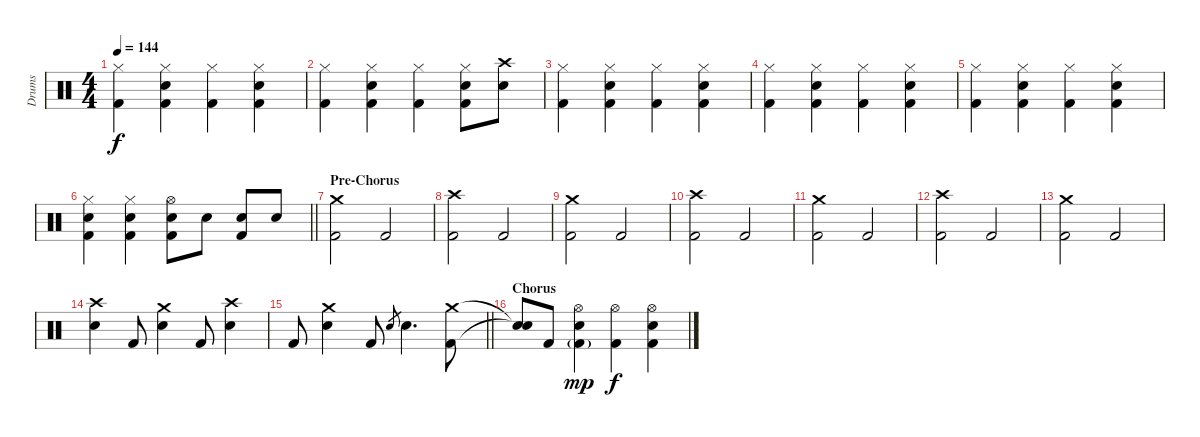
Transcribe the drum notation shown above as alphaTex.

\track ("Drums" "Drums") {instrument percussion}
\staff {score}
\articulation defaults
\ts (4 4)
\tempo 144
\clef neutral
\ks c
("Hi-Hat (closed)" "Kick (hit) 2").4{dy f} ("Hi-Hat (closed)" "Electric Snare (hit)" "Kick (hit) 2").4 ("Hi-Hat (closed)" "Kick (hit) 2").4 ("Hi-Hat (closed)" "Electric Snare (hit)" "Kick (hit) 2").4 |
("Hi-Hat (closed)" "Kick (hit) 2").4 ("Hi-Hat (closed)" "Electric Snare (hit)" "Kick (hit) 2").4 ("Hi-Hat (closed)" "Kick (hit) 2").4 ("Hi-Hat (closed)" "Electric Snare (hit)" "Kick (hit) 2").8 ("Crash high (hit)" "Electric Snare (hit)").8 |
("Hi-Hat (closed)" "Kick (hit) 2").4 ("Hi-Hat (closed)" "Electric Snare (hit)" "Kick (hit) 2").4 ("Hi-Hat (closed)" "Kick (hit) 2").4 ("Hi-Hat (closed)" "Electric Snare (hit)" "Kick (hit) 2").4 |
("Hi-Hat (closed)" "Kick (hit) 2").4 ("Hi-Hat (closed)" "Electric Snare (hit)" "Kick (hit) 2").4 ("Hi-Hat (closed)" "Kick (hit) 2").4 ("Hi-Hat (closed)" "Electric Snare (hit)" "Kick (hit) 2").4 |
("Hi-Hat (closed)" "Kick (hit) 2").4 ("Hi-Hat (closed)" "Electric Snare (hit)" "Kick (hit) 2").4 ("Hi-Hat (closed)" "Kick (hit) 2").4 ("Hi-Hat (closed)" "Electric Snare (hit)" "Kick (hit) 2").4 |
\barLineRight lightlight
("Hi-Hat (closed)" "Electric Snare (hit)" "Kick (hit) 2").4 ("Hi-Hat (closed)" "Electric Snare (hit)" "Kick (hit) 2").4 ("Hi-Hat (open)" "Electric Snare (hit)" "Kick (hit) 2").8 "Electric Snare (hit)".8 ("Electric Snare (hit)" "Kick (hit) 2").8 "Electric Snare (hit)".8 |
\section ("" "Pre-Chorus")
("Crash medium (hit)" "Kick (hit) 2").2 "Kick (hit) 2".2 |
("Crash high (hit)" "Kick (hit) 2").2 "Kick (hit) 2".2 |
("Crash medium (hit)" "Kick (hit) 2").2 "Kick (hit) 2".2 |
("Crash high (hit)" "Kick (hit) 2").2 "Kick (hit) 2".2 |
("Crash medium (hit)" "Kick (hit) 2").2 "Kick (hit) 2".2 |
("Crash high (hit)" "Kick (hit) 2").2 "Kick (hit) 2".2 |
("Crash medium (hit)" "Kick (hit) 2").2 "Kick (hit) 2".2 |
("Crash high (hit)" "Electric Snare (hit)").4 "Kick (hit) 2".8 ("Crash medium (hit)" "Electric Snare (hit)").4 "Kick (hit) 2".8 ("Crash high (hit)" "Electric Snare (hit)").4 |
\barLineRight lightlight "Kick (hit) 2".8
("Crash medium (hit)" "Electric Snare (hit)").4 "Kick (hit) 2".8 "Electric Snare (hit)".8{gr} "Electric Snare (hit)".4{d} ("Crash medium (hit)" "Kick (hit) 2").8 |
\section ("" "Chorus")
("Snare (hit)"{t} "Snare (hit)"{t}).8 "Kick (hit) 2".8 ("Hi-Hat (open)" "Electric Snare (hit)" "Kick (hit) 2"{g}).4{dy mp} ("Hi-Hat (open)" "Kick (hit) 2").4{dy f} ("Hi-Hat (open)" "Electric Snare (hit)" "Kick (hit) 2").4
